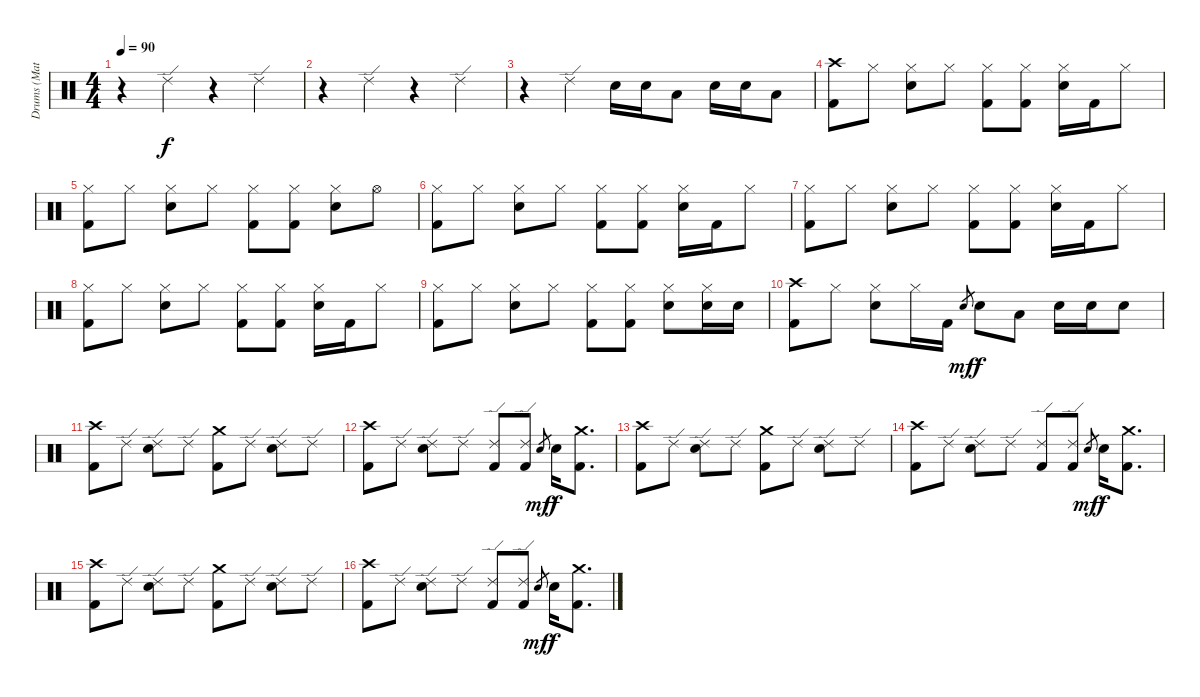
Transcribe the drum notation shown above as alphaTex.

\track ("Drums (Matt)" "Drums (Mat") {instrument percussion}
\staff {score}
\articulation defaults
\ts (4 4)
\tempo 90
\clef neutral
\ks c
r.4{dy f} "Ride (edge) 2".4 r.4 "Ride (edge) 2".4 |
r.4 "Ride (edge) 2".4 r.4 "Ride (edge) 2".4 |
r.4 "Ride (edge) 2".4 "Snare (hit) 2".16 "Snare (hit) 2".16 "Low Tom (hit)".8 "Snare (hit) 2".16 "Snare (hit) 2".16 "Low Tom (hit)".8 |
("Crash high (hit)" "Kick (hit) 2").8 "Hi-Hat (closed)".8 ("Hi-Hat (closed)" "Snare (hit) 2").8 "Hi-Hat (closed)".8 ("Hi-Hat (closed)" "Kick (hit) 2").8 ("Hi-Hat (closed)" "Kick (hit) 2").8 ("Hi-Hat (closed)" "Snare (hit) 2").16 "Kick (hit) 2".16 "Hi-Hat (closed)".8 |
("Hi-Hat (closed)" "Kick (hit) 2").8 "Hi-Hat (closed)".8 ("Hi-Hat (closed)" "Snare (hit) 2").8 "Hi-Hat (closed)".8 ("Hi-Hat (closed)" "Kick (hit) 2").8 ("Hi-Hat (closed)" "Kick (hit) 2").8 ("Hi-Hat (closed)" "Snare (hit) 2").8 "Hi-Hat (open)".8 |
("Hi-Hat (closed)" "Kick (hit) 2").8 "Hi-Hat (closed)".8 ("Hi-Hat (closed)" "Snare (hit) 2").8 "Hi-Hat (closed)".8 ("Hi-Hat (closed)" "Kick (hit) 2").8 ("Hi-Hat (closed)" "Kick (hit) 2").8 ("Hi-Hat (closed)" "Snare (hit) 2").16 "Kick (hit) 2".16 "Hi-Hat (closed)".8 |
("Hi-Hat (closed)" "Kick (hit) 2").8 "Hi-Hat (closed)".8 ("Hi-Hat (closed)" "Snare (hit) 2").8 "Hi-Hat (closed)".8 ("Hi-Hat (closed)" "Kick (hit) 2").8 ("Hi-Hat (closed)" "Kick (hit) 2").8 ("Hi-Hat (closed)" "Snare (hit) 2").16 "Kick (hit) 2".16 "Hi-Hat (closed)".8 |
("Hi-Hat (closed)" "Kick (hit) 2").8 "Hi-Hat (closed)".8 ("Hi-Hat (closed)" "Snare (hit) 2").8 "Hi-Hat (closed)".8 ("Hi-Hat (closed)" "Kick (hit) 2").8 ("Hi-Hat (closed)" "Kick (hit) 2").8 ("Hi-Hat (closed)" "Snare (hit) 2").16 "Kick (hit) 2".16 "Hi-Hat (closed)".8 |
("Hi-Hat (closed)" "Kick (hit) 2").8 "Hi-Hat (closed)".8 ("Hi-Hat (closed)" "Snare (hit) 2").8 "Hi-Hat (closed)".8 ("Hi-Hat (closed)" "Kick (hit) 2").8 ("Hi-Hat (closed)" "Kick (hit) 2").8 ("Hi-Hat (closed)" "Snare (hit) 2").8 ("Hi-Hat (closed)" "Snare (hit) 2").16 "Snare (hit) 2".16 |
("Crash high (hit)" "Kick (hit) 2").8 "Hi-Hat (closed)".8 ("Hi-Hat (closed)" "Snare (hit) 2").8 "Hi-Hat (closed)".16 "Kick (hit) 2".16 "Snare (hit)".8{gr dy mf} "Snare (hit) 2".8{dy f} "Low Tom (hit)".8 "Snare (hit) 2".16 "Snare (hit) 2".16 "Snare (hit) 2".8 |
("Crash high (hit)" "Kick (hit) 2").8 "Ride (edge) 2".8 ("Ride (edge) 2" "Snare (hit) 2").8 "Ride (edge) 2".8 ("Crash medium (hit)" "Kick (hit) 2").8 "Ride (edge) 2".8 ("Ride (edge) 2" "Snare (hit) 2").8 "Ride (edge) 2".8 |
("Crash high (hit)" "Kick (hit) 2").8 "Ride (edge) 2".8 ("Ride (edge) 2" "Snare (hit) 2").8 "Ride (edge) 2".8 ("Ride (edge) 2" "Kick (hit) 2").8 ("Ride (edge) 2" "Kick (hit) 2").8 "Snare (hit)".8{gr dy mf} "Snare (hit) 2".16{dy f} ("Crash medium (hit)" "Kick (hit) 2").8{d} |
("Crash high (hit)" "Kick (hit) 2").8 "Ride (edge) 2".8 ("Ride (edge) 2" "Snare (hit) 2").8 "Ride (edge) 2".8 ("Crash medium (hit)" "Kick (hit) 2").8 "Ride (edge) 2".8 ("Ride (edge) 2" "Snare (hit) 2").8 "Ride (edge) 2".8 |
("Crash high (hit)" "Kick (hit) 2").8 "Ride (edge) 2".8 ("Ride (edge) 2" "Snare (hit) 2").8 "Ride (edge) 2".8 ("Ride (edge) 2" "Kick (hit) 2").8 ("Ride (edge) 2" "Kick (hit) 2").8 "Snare (hit)".8{gr dy mf} "Snare (hit) 2".16{dy f} ("Crash medium (hit)" "Kick (hit) 2").8{d} |
("Crash high (hit)" "Kick (hit) 2").8 "Ride (edge) 2".8 ("Ride (edge) 2" "Snare (hit) 2").8 "Ride (edge) 2".8 ("Crash medium (hit)" "Kick (hit) 2").8 "Ride (edge) 2".8 ("Ride (edge) 2" "Snare (hit) 2").8 "Ride (edge) 2".8 |
("Crash high (hit)" "Kick (hit) 2").8 "Ride (edge) 2".8 ("Ride (edge) 2" "Snare (hit) 2").8 "Ride (edge) 2".8 ("Ride (edge) 2" "Kick (hit) 2").8 ("Ride (edge) 2" "Kick (hit) 2").8 "Snare (hit)".8{gr dy mf} "Snare (hit) 2".16{dy f} ("Crash medium (hit)" "Kick (hit) 2").8{d}
